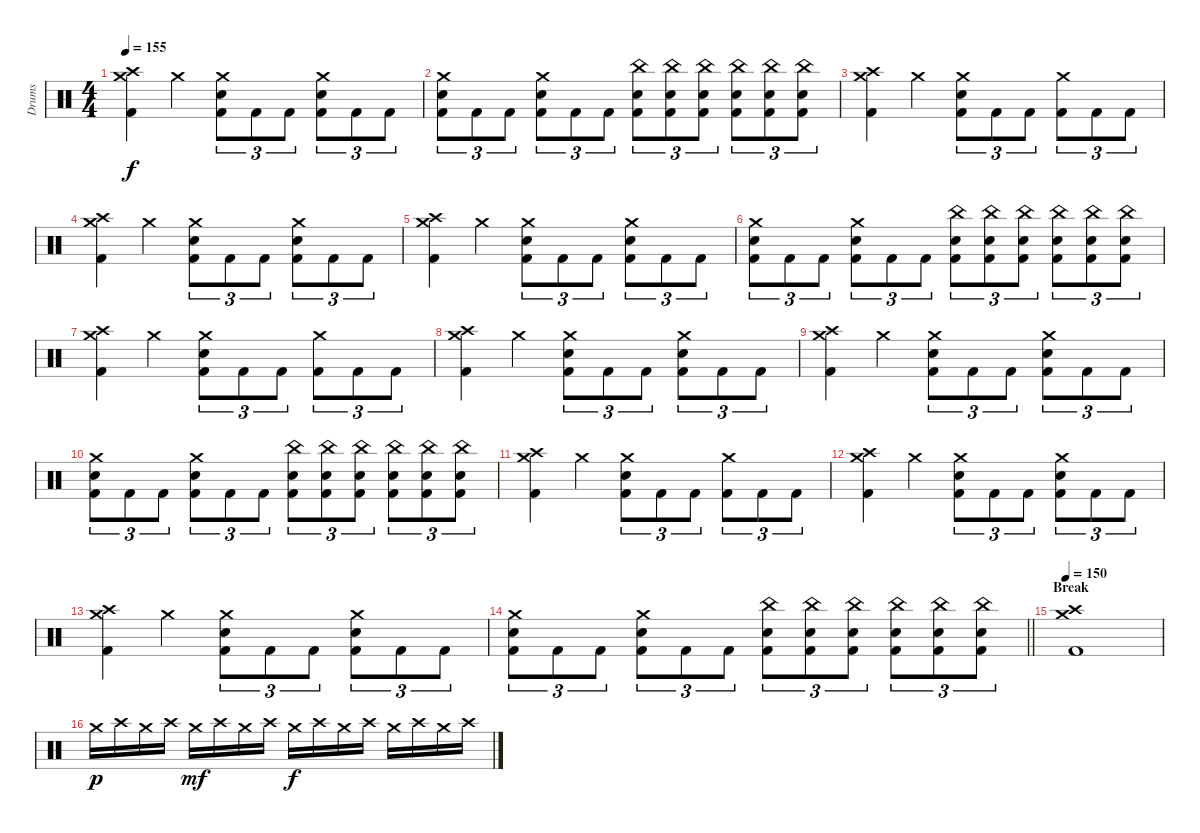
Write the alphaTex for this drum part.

\track ("Drums" "Drums") {instrument percussion}
\staff {score}
\articulation defaults
\ts (4 4)
\tempo 155
\clef neutral
\ks c
("Crash medium (hit)" "Crash high (hit)" "Kick (hit) 2").4{dy f} "Crash medium (hit)".4 ("Crash medium (hit)" "Electric Snare (hit)" "Kick (hit) 2").8{tu (3 2)} "Kick (hit) 2".8{tu (3 2)} "Kick (hit) 2".8{tu (3 2)} ("Crash medium (hit)" "Electric Snare (hit)" "Kick (hit) 2").8{tu (3 2)} "Kick (hit) 2".8{tu (3 2)} "Kick (hit) 2".8{tu (3 2)} |
("Crash medium (hit)" "Electric Snare (hit)" "Kick (hit) 2").8{tu (3 2)} "Kick (hit) 2".8{tu (3 2)} "Kick (hit) 2".8{tu (3 2)} ("Crash medium (hit)" "Electric Snare (hit)" "Kick (hit) 2").8{tu (3 2)} "Kick (hit) 2".8{tu (3 2)} "Kick (hit) 2".8{tu (3 2)} ("China (hit)" "Electric Snare (hit)" "Kick (hit) 2").8{tu (3 2)} ("China (hit)" "Electric Snare (hit)" "Kick (hit) 2").8{tu (3 2)} ("China (hit)" "Electric Snare (hit)" "Kick (hit) 2").8{tu (3 2)} ("China (hit)" "Electric Snare (hit)" "Kick (hit) 2").8{tu (3 2)} ("China (hit)" "Electric Snare (hit)" "Kick (hit) 2").8{tu (3 2)} ("China (hit)" "Electric Snare (hit)" "Kick (hit) 2").8{tu (3 2)} |
("Crash medium (hit)" "Crash high (hit)" "Kick (hit) 2").4 "Crash medium (hit)".4 ("Crash medium (hit)" "Electric Snare (hit)" "Kick (hit) 2").8{tu (3 2)} "Kick (hit) 2".8{tu (3 2)} "Kick (hit) 2".8{tu (3 2)} ("Crash medium (hit)" "Kick (hit) 2").8{tu (3 2)} "Kick (hit) 2".8{tu (3 2)} "Kick (hit) 2".8{tu (3 2)} |
("Crash medium (hit)" "Crash high (hit)" "Kick (hit) 2").4 "Crash medium (hit)".4 ("Crash medium (hit)" "Electric Snare (hit)" "Kick (hit) 2").8{tu (3 2)} "Kick (hit) 2".8{tu (3 2)} "Kick (hit) 2".8{tu (3 2)} ("Crash medium (hit)" "Electric Snare (hit)" "Kick (hit) 2").8{tu (3 2)} "Kick (hit) 2".8{tu (3 2)} "Kick (hit) 2".8{tu (3 2)} |
("Crash medium (hit)" "Crash high (hit)" "Kick (hit) 2").4 "Crash medium (hit)".4 ("Crash medium (hit)" "Electric Snare (hit)" "Kick (hit) 2").8{tu (3 2)} "Kick (hit) 2".8{tu (3 2)} "Kick (hit) 2".8{tu (3 2)} ("Crash medium (hit)" "Electric Snare (hit)" "Kick (hit) 2").8{tu (3 2)} "Kick (hit) 2".8{tu (3 2)} "Kick (hit) 2".8{tu (3 2)} |
("Crash medium (hit)" "Electric Snare (hit)" "Kick (hit) 2").8{tu (3 2)} "Kick (hit) 2".8{tu (3 2)} "Kick (hit) 2".8{tu (3 2)} ("Crash medium (hit)" "Electric Snare (hit)" "Kick (hit) 2").8{tu (3 2)} "Kick (hit) 2".8{tu (3 2)} "Kick (hit) 2".8{tu (3 2)} ("China (hit)" "Electric Snare (hit)" "Kick (hit) 2").8{tu (3 2)} ("China (hit)" "Electric Snare (hit)" "Kick (hit) 2").8{tu (3 2)} ("China (hit)" "Electric Snare (hit)" "Kick (hit) 2").8{tu (3 2)} ("China (hit)" "Electric Snare (hit)" "Kick (hit) 2").8{tu (3 2)} ("China (hit)" "Electric Snare (hit)" "Kick (hit) 2").8{tu (3 2)} ("China (hit)" "Electric Snare (hit)" "Kick (hit) 2").8{tu (3 2)} |
("Crash medium (hit)" "Crash high (hit)" "Kick (hit) 2").4 "Crash medium (hit)".4 ("Crash medium (hit)" "Electric Snare (hit)" "Kick (hit) 2").8{tu (3 2)} "Kick (hit) 2".8{tu (3 2)} "Kick (hit) 2".8{tu (3 2)} ("Crash medium (hit)" "Kick (hit) 2").8{tu (3 2)} "Kick (hit) 2".8{tu (3 2)} "Kick (hit) 2".8{tu (3 2)} |
("Crash medium (hit)" "Crash high (hit)" "Kick (hit) 2").4 "Crash medium (hit)".4 ("Crash medium (hit)" "Electric Snare (hit)" "Kick (hit) 2").8{tu (3 2)} "Kick (hit) 2".8{tu (3 2)} "Kick (hit) 2".8{tu (3 2)} ("Crash medium (hit)" "Electric Snare (hit)" "Kick (hit) 2").8{tu (3 2)} "Kick (hit) 2".8{tu (3 2)} "Kick (hit) 2".8{tu (3 2)} |
("Crash medium (hit)" "Crash high (hit)" "Kick (hit) 2").4 "Crash medium (hit)".4 ("Crash medium (hit)" "Electric Snare (hit)" "Kick (hit) 2").8{tu (3 2)} "Kick (hit) 2".8{tu (3 2)} "Kick (hit) 2".8{tu (3 2)} ("Crash medium (hit)" "Electric Snare (hit)" "Kick (hit) 2").8{tu (3 2)} "Kick (hit) 2".8{tu (3 2)} "Kick (hit) 2".8{tu (3 2)} |
("Crash medium (hit)" "Electric Snare (hit)" "Kick (hit) 2").8{tu (3 2)} "Kick (hit) 2".8{tu (3 2)} "Kick (hit) 2".8{tu (3 2)} ("Crash medium (hit)" "Electric Snare (hit)" "Kick (hit) 2").8{tu (3 2)} "Kick (hit) 2".8{tu (3 2)} "Kick (hit) 2".8{tu (3 2)} ("China (hit)" "Electric Snare (hit)" "Kick (hit) 2").8{tu (3 2)} ("China (hit)" "Electric Snare (hit)" "Kick (hit) 2").8{tu (3 2)} ("China (hit)" "Electric Snare (hit)" "Kick (hit) 2").8{tu (3 2)} ("China (hit)" "Electric Snare (hit)" "Kick (hit) 2").8{tu (3 2)} ("China (hit)" "Electric Snare (hit)" "Kick (hit) 2").8{tu (3 2)} ("China (hit)" "Electric Snare (hit)" "Kick (hit) 2").8{tu (3 2)} |
("Crash medium (hit)" "Crash high (hit)" "Kick (hit) 2").4 "Crash medium (hit)".4 ("Crash medium (hit)" "Electric Snare (hit)" "Kick (hit) 2").8{tu (3 2)} "Kick (hit) 2".8{tu (3 2)} "Kick (hit) 2".8{tu (3 2)} ("Crash medium (hit)" "Kick (hit) 2").8{tu (3 2)} "Kick (hit) 2".8{tu (3 2)} "Kick (hit) 2".8{tu (3 2)} |
("Crash medium (hit)" "Crash high (hit)" "Kick (hit) 2").4 "Crash medium (hit)".4 ("Crash medium (hit)" "Electric Snare (hit)" "Kick (hit) 2").8{tu (3 2)} "Kick (hit) 2".8{tu (3 2)} "Kick (hit) 2".8{tu (3 2)} ("Crash medium (hit)" "Electric Snare (hit)" "Kick (hit) 2").8{tu (3 2)} "Kick (hit) 2".8{tu (3 2)} "Kick (hit) 2".8{tu (3 2)} |
("Crash medium (hit)" "Crash high (hit)" "Kick (hit) 2").4 "Crash medium (hit)".4 ("Crash medium (hit)" "Electric Snare (hit)" "Kick (hit) 2").8{tu (3 2)} "Kick (hit) 2".8{tu (3 2)} "Kick (hit) 2".8{tu (3 2)} ("Crash medium (hit)" "Electric Snare (hit)" "Kick (hit) 2").8{tu (3 2)} "Kick (hit) 2".8{tu (3 2)} "Kick (hit) 2".8{tu (3 2)} |
\barLineRight lightlight
("Crash medium (hit)" "Electric Snare (hit)" "Kick (hit) 2").8{tu (3 2)} "Kick (hit) 2".8{tu (3 2)} "Kick (hit) 2".8{tu (3 2)} ("Crash medium (hit)" "Electric Snare (hit)" "Kick (hit) 2").8{tu (3 2)} "Kick (hit) 2".8{tu (3 2)} "Kick (hit) 2".8{tu (3 2)} ("China (hit)" "Electric Snare (hit)" "Kick (hit) 2").8{tu (3 2)} ("China (hit)" "Electric Snare (hit)" "Kick (hit) 2").8{tu (3 2)} ("China (hit)" "Electric Snare (hit)" "Kick (hit) 2").8{tu (3 2)} ("China (hit)" "Electric Snare (hit)" "Kick (hit) 2").8{tu (3 2)} ("China (hit)" "Electric Snare (hit)" "Kick (hit) 2").8{tu (3 2)} ("China (hit)" "Electric Snare (hit)" "Kick (hit) 2").8{tu (3 2)} |
\section ("" "Break")
\tempo 150
("Crash medium (hit)" "Crash high (hit)" "Kick (hit) 2").1 |
"Crash medium (hit)".16{dy p} "Crash high (hit)".16 "Crash medium (hit)".16 "Crash high (hit)".16 "Crash medium (hit)".16{dy mf} "Crash high (hit)".16 "Crash medium (hit)".16 "Crash high (hit)".16 "Crash medium (hit)".16{dy f} "Crash high (hit)".16 "Crash medium (hit)".16 "Crash high (hit)".16 "Crash medium (hit)".16 "Crash high (hit)".16 "Crash medium (hit)".16 "Crash high (hit)".16
